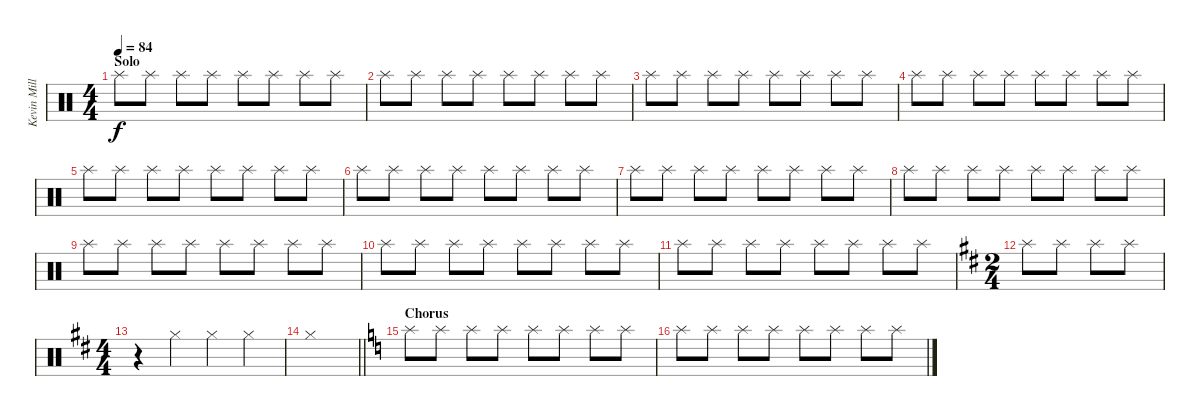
\track ("Kevin Miller (Drums)" "Kevin Mill") {instrument percussion}
\staff {score}
\articulation defaults
\ts (4 4)
\section ("" "Solo")
\tempo 84
\clef neutral
\ks c "Splash (hit)".8{dy f} "Splash (hit)".8 "Splash (hit)".8 "Splash (hit)".8 "Splash (hit)".8 "Splash (hit)".8 "Splash (hit)".8 "Splash (hit)".8
|
"Splash (hit)".8 "Splash (hit)".8 "Splash (hit)".8 "Splash (hit)".8 "Splash (hit)".8 "Splash (hit)".8 "Splash (hit)".8 "Splash (hit)".8 |
"Splash (hit)".8 "Splash (hit)".8 "Splash (hit)".8 "Splash (hit)".8 "Splash (hit)".8 "Splash (hit)".8 "Splash (hit)".8 "Splash (hit)".8 |
"Splash (hit)".8 "Splash (hit)".8 "Splash (hit)".8 "Splash (hit)".8 "Splash (hit)".8 "Splash (hit)".8 "Splash (hit)".8 "Splash (hit)".8 |
"Splash (hit)".8 "Splash (hit)".8 "Splash (hit)".8 "Splash (hit)".8 "Splash (hit)".8 "Splash (hit)".8 "Splash (hit)".8 "Splash (hit)".8 |
"Splash (hit)".8 "Splash (hit)".8 "Splash (hit)".8 "Splash (hit)".8 "Splash (hit)".8 "Splash (hit)".8 "Splash (hit)".8 "Splash (hit)".8 |
"Splash (hit)".8 "Splash (hit)".8 "Splash (hit)".8 "Splash (hit)".8 "Splash (hit)".8 "Splash (hit)".8 "Splash (hit)".8 "Splash (hit)".8 |
"Splash (hit)".8 "Splash (hit)".8 "Splash (hit)".8 "Splash (hit)".8 "Splash (hit)".8 "Splash (hit)".8 "Splash (hit)".8 "Splash (hit)".8 |
"Splash (hit)".8 "Splash (hit)".8 "Splash (hit)".8 "Splash (hit)".8 "Splash (hit)".8 "Splash (hit)".8 "Splash (hit)".8 "Splash (hit)".8 |
"Splash (hit)".8 "Splash (hit)".8 "Splash (hit)".8 "Splash (hit)".8 "Splash (hit)".8 "Splash (hit)".8 "Splash (hit)".8 "Splash (hit)".8 |
"Splash (hit)".8 "Splash (hit)".8 "Splash (hit)".8 "Splash (hit)".8 "Splash (hit)".8 "Splash (hit)".8 "Splash (hit)".8 "Splash (hit)".8 |
\ts (2 4)
\ks d "Splash (hit)".8 "Splash (hit)".8 "Splash (hit)".8 "Splash (hit)".8
|
\ts (4 4)
r.4 "Hi-Hat (closed)".4 "Hi-Hat (closed)".4 "Hi-Hat (closed)".4 |
\barLineRight lightlight "Hi-Hat (closed)".1
|
\section ("" "Chorus")
\ks c "Splash (hit)".8 "Splash (hit)".8 "Splash (hit)".8 "Splash (hit)".8 "Splash (hit)".8 "Splash (hit)".8 "Splash (hit)".8 "Splash (hit)".8
|
"Splash (hit)".8 "Splash (hit)".8 "Splash (hit)".8 "Splash (hit)".8 "Splash (hit)".8 "Splash (hit)".8 "Splash (hit)".8 "Splash (hit)".8
